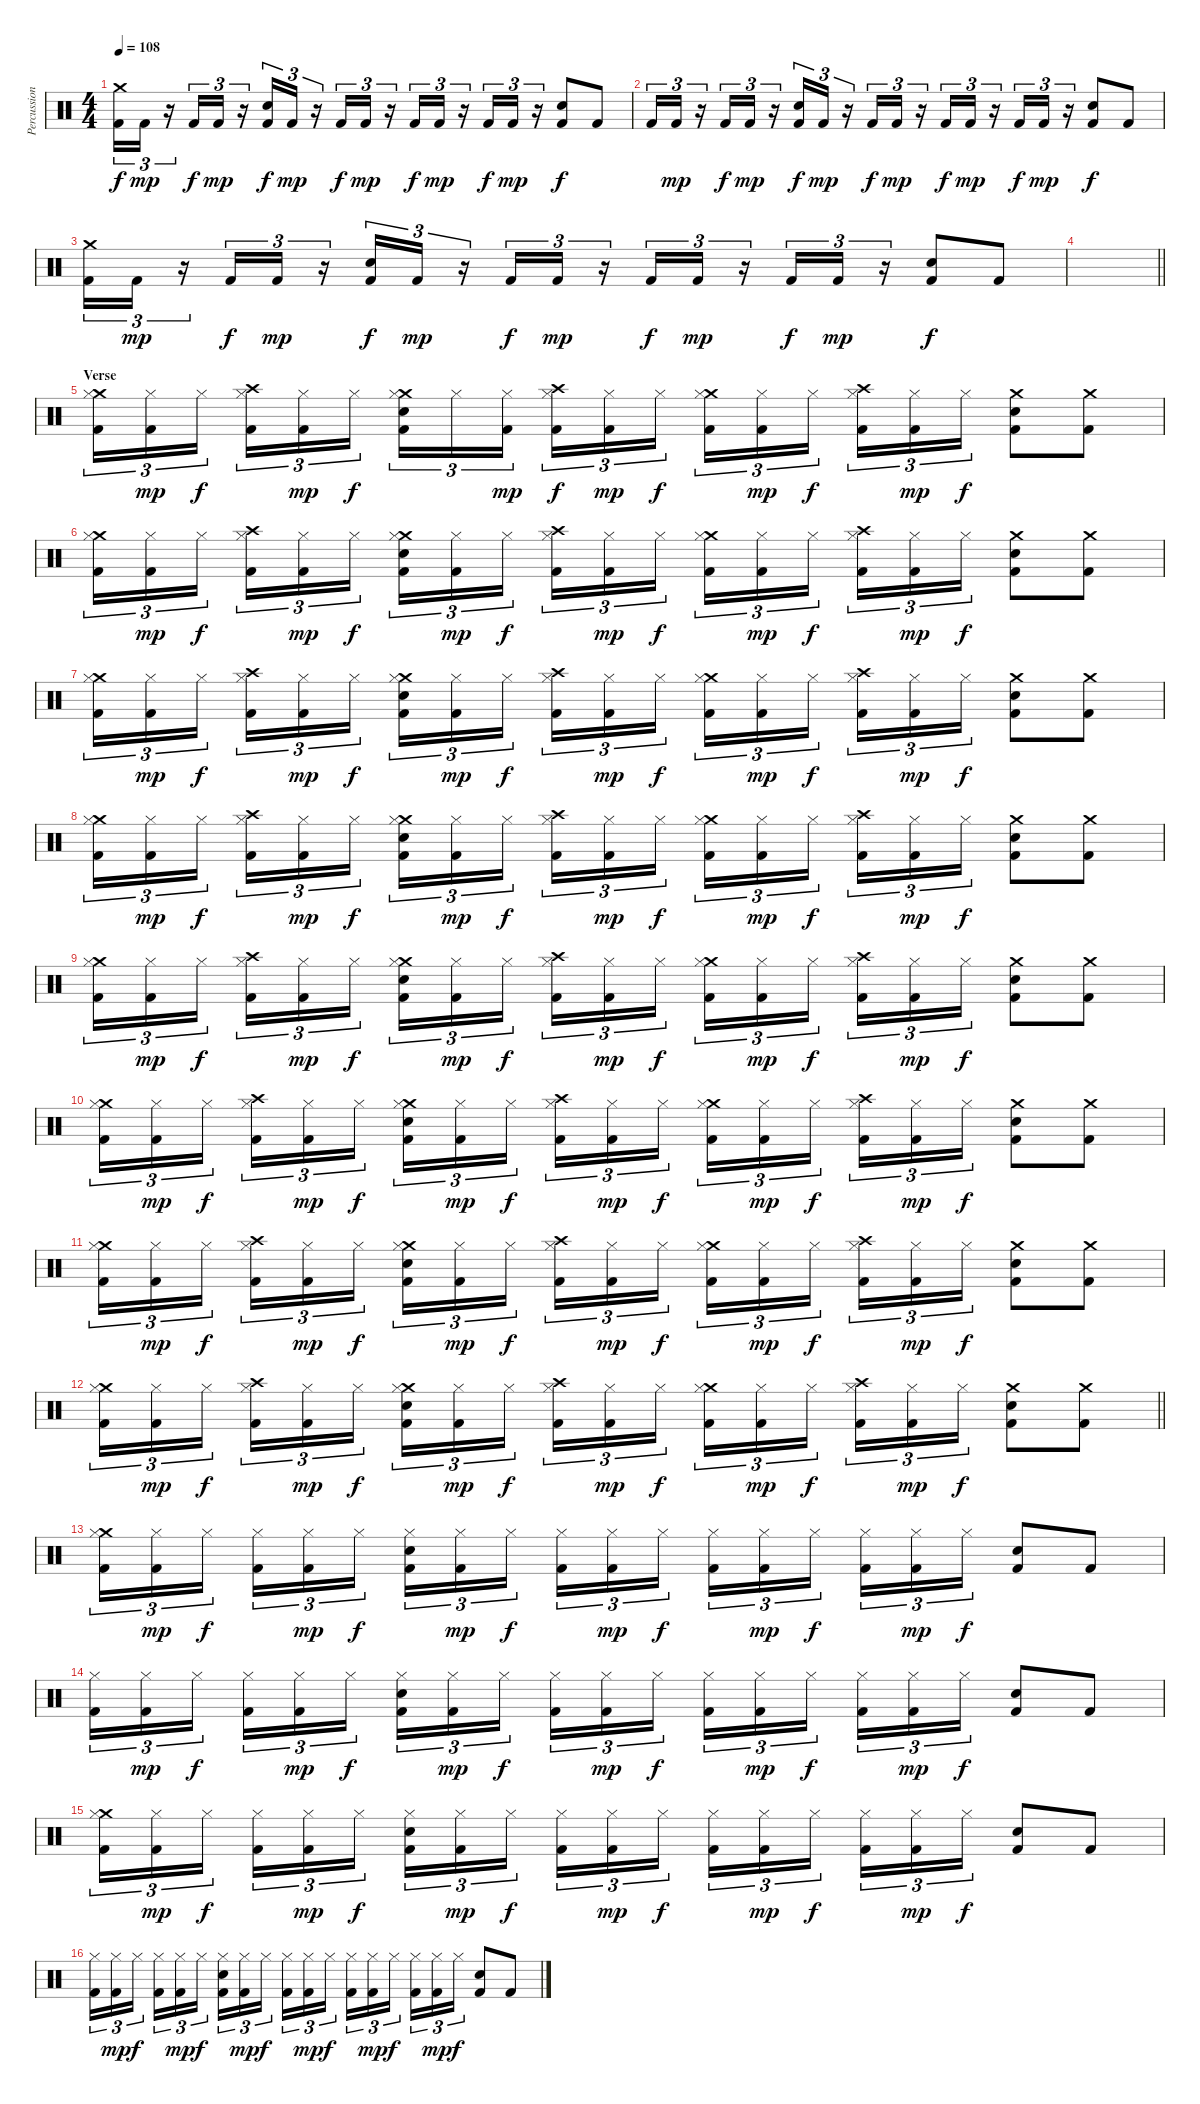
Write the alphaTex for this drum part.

\track ("Percussion" "Percussion") {instrument percussion}
\staff {score}
\articulation defaults
\ts (4 4)
\tempo 108
\clef neutral
\ks c
("Crash medium (hit)" "Kick (hit) 2").16{tu (3 2) dy f} "Kick (hit) 2".16{tu (3 2) dy mp} r.16{tu (3 2)} "Kick (hit) 2".16{tu (3 2) dy f} "Kick (hit) 2".16{tu (3 2) dy mp} r.16{tu (3 2)} ("Electric Snare (hit)" "Kick (hit) 2").16{tu (3 2) dy f} "Kick (hit) 2".16{tu (3 2) dy mp} r.16{tu (3 2)} "Kick (hit) 2".16{tu (3 2) dy f} "Kick (hit) 2".16{tu (3 2) dy mp} r.16{tu (3 2)} "Kick (hit) 2".16{tu (3 2) dy f} "Kick (hit) 2".16{tu (3 2) dy mp} r.16{tu (3 2)} "Kick (hit) 2".16{tu (3 2) dy f} "Kick (hit) 2".16{tu (3 2) dy mp} r.16{tu (3 2)} ("Electric Snare (hit)" "Kick (hit) 2").8{dy f} "Kick (hit) 2".8 |
"Kick (hit) 2".16{tu (3 2)} "Kick (hit) 2".16{tu (3 2) dy mp} r.16{tu (3 2)} "Kick (hit) 2".16{tu (3 2) dy f} "Kick (hit) 2".16{tu (3 2) dy mp} r.16{tu (3 2)} ("Electric Snare (hit)" "Kick (hit) 2").16{tu (3 2) dy f} "Kick (hit) 2".16{tu (3 2) dy mp} r.16{tu (3 2)} "Kick (hit) 2".16{tu (3 2) dy f} "Kick (hit) 2".16{tu (3 2) dy mp} r.16{tu (3 2)} "Kick (hit) 2".16{tu (3 2) dy f} "Kick (hit) 2".16{tu (3 2) dy mp} r.16{tu (3 2)} "Kick (hit) 2".16{tu (3 2) dy f} "Kick (hit) 2".16{tu (3 2) dy mp} r.16{tu (3 2)} ("Electric Snare (hit)" "Kick (hit) 2").8{dy f} "Kick (hit) 2".8 |
("Crash medium (hit)" "Kick (hit) 2").16{tu (3 2)} "Kick (hit) 2".16{tu (3 2) dy mp} r.16{tu (3 2)} "Kick (hit) 2".16{tu (3 2) dy f} "Kick (hit) 2".16{tu (3 2) dy mp} r.16{tu (3 2)} ("Electric Snare (hit)" "Kick (hit) 2").16{tu (3 2) dy f} "Kick (hit) 2".16{tu (3 2) dy mp} r.16{tu (3 2)} "Kick (hit) 2".16{tu (3 2) dy f} "Kick (hit) 2".16{tu (3 2) dy mp} r.16{tu (3 2)} "Kick (hit) 2".16{tu (3 2) dy f} "Kick (hit) 2".16{tu (3 2) dy mp} r.16{tu (3 2)} "Kick (hit) 2".16{tu (3 2) dy f} "Kick (hit) 2".16{tu (3 2) dy mp} r.16{tu (3 2)} ("Electric Snare (hit)" "Kick (hit) 2").8{dy f} "Kick (hit) 2".8 |
\barLineRight lightlight
|
\section ("" "Verse")
("Crash medium (hit)" "Hi-Hat (closed)" "Kick (hit) 2").16{tu (3 2)} ("Hi-Hat (closed)" "Kick (hit) 2").16{tu (3 2) dy mp} "Hi-Hat (closed)".16{tu (3 2) dy f beam splitsecondary} ("Crash high (hit)" "Hi-Hat (closed)" "Kick (hit) 2").16{tu (3 2)} ("Hi-Hat (closed)" "Kick (hit) 2").16{tu (3 2) dy mp} "Hi-Hat (closed)".16{tu (3 2) dy f} ("Crash medium (hit)" "Hi-Hat (closed)" "Electric Snare (hit)" "Kick (hit) 2").16{tu (3 2)} "Hi-Hat (closed)".16{tu (3 2)} ("Hi-Hat (closed)" "Kick (hit) 2").16{tu (3 2) dy mp beam splitsecondary} ("Crash high (hit)" "Hi-Hat (closed)" "Kick (hit) 2").16{tu (3 2) dy f} ("Hi-Hat (closed)" "Kick (hit) 2").16{tu (3 2) dy mp} "Hi-Hat (closed)".16{tu (3 2) dy f} ("Crash medium (hit)" "Hi-Hat (closed)" "Kick (hit) 2").16{tu (3 2)} ("Hi-Hat (closed)" "Kick (hit) 2").16{tu (3 2) dy mp} "Hi-Hat (closed)".16{tu (3 2) dy f beam splitsecondary} ("Crash high (hit)" "Hi-Hat (closed)" "Kick (hit) 2").16{tu (3 2)} ("Hi-Hat (closed)" "Kick (hit) 2").16{tu (3 2) dy mp} "Hi-Hat (closed)".16{tu (3 2) dy f} ("Crash medium (hit)" "Electric Snare (hit)" "Kick (hit) 2").8 ("Crash medium (hit)" "Kick (hit) 2").8 |
("Crash medium (hit)" "Hi-Hat (closed)" "Kick (hit) 2").16{tu (3 2)} ("Hi-Hat (closed)" "Kick (hit) 2").16{tu (3 2) dy mp} "Hi-Hat (closed)".16{tu (3 2) dy f beam splitsecondary} ("Crash high (hit)" "Hi-Hat (closed)" "Kick (hit) 2").16{tu (3 2)} ("Hi-Hat (closed)" "Kick (hit) 2").16{tu (3 2) dy mp} "Hi-Hat (closed)".16{tu (3 2) dy f} ("Crash medium (hit)" "Hi-Hat (closed)" "Electric Snare (hit)" "Kick (hit) 2").16{tu (3 2)} ("Hi-Hat (closed)" "Kick (hit) 2").16{tu (3 2) dy mp} "Hi-Hat (closed)".16{tu (3 2) dy f beam splitsecondary} ("Crash high (hit)" "Hi-Hat (closed)" "Kick (hit) 2").16{tu (3 2)} ("Hi-Hat (closed)" "Kick (hit) 2").16{tu (3 2) dy mp} "Hi-Hat (closed)".16{tu (3 2) dy f} ("Crash medium (hit)" "Hi-Hat (closed)" "Kick (hit) 2").16{tu (3 2)} ("Hi-Hat (closed)" "Kick (hit) 2").16{tu (3 2) dy mp} "Hi-Hat (closed)".16{tu (3 2) dy f beam splitsecondary} ("Crash high (hit)" "Hi-Hat (closed)" "Kick (hit) 2").16{tu (3 2)} ("Hi-Hat (closed)" "Kick (hit) 2").16{tu (3 2) dy mp} "Hi-Hat (closed)".16{tu (3 2) dy f} ("Crash medium (hit)" "Electric Snare (hit)" "Kick (hit) 2").8 ("Crash medium (hit)" "Kick (hit) 2").8 |
("Crash medium (hit)" "Hi-Hat (closed)" "Kick (hit) 2").16{tu (3 2)} ("Hi-Hat (closed)" "Kick (hit) 2").16{tu (3 2) dy mp} "Hi-Hat (closed)".16{tu (3 2) dy f beam splitsecondary} ("Crash high (hit)" "Hi-Hat (closed)" "Kick (hit) 2").16{tu (3 2)} ("Hi-Hat (closed)" "Kick (hit) 2").16{tu (3 2) dy mp} "Hi-Hat (closed)".16{tu (3 2) dy f} ("Crash medium (hit)" "Hi-Hat (closed)" "Electric Snare (hit)" "Kick (hit) 2").16{tu (3 2)} ("Hi-Hat (closed)" "Kick (hit) 2").16{tu (3 2) dy mp} "Hi-Hat (closed)".16{tu (3 2) dy f beam splitsecondary} ("Crash high (hit)" "Hi-Hat (closed)" "Kick (hit) 2").16{tu (3 2)} ("Hi-Hat (closed)" "Kick (hit) 2").16{tu (3 2) dy mp} "Hi-Hat (closed)".16{tu (3 2) dy f} ("Crash medium (hit)" "Hi-Hat (closed)" "Kick (hit) 2").16{tu (3 2)} ("Hi-Hat (closed)" "Kick (hit) 2").16{tu (3 2) dy mp} "Hi-Hat (closed)".16{tu (3 2) dy f beam splitsecondary} ("Crash high (hit)" "Hi-Hat (closed)" "Kick (hit) 2").16{tu (3 2)} ("Hi-Hat (closed)" "Kick (hit) 2").16{tu (3 2) dy mp} "Hi-Hat (closed)".16{tu (3 2) dy f} ("Crash medium (hit)" "Electric Snare (hit)" "Kick (hit) 2").8 ("Crash medium (hit)" "Kick (hit) 2").8 |
("Crash medium (hit)" "Hi-Hat (closed)" "Kick (hit) 2").16{tu (3 2)} ("Hi-Hat (closed)" "Kick (hit) 2").16{tu (3 2) dy mp} "Hi-Hat (closed)".16{tu (3 2) dy f beam splitsecondary} ("Crash high (hit)" "Hi-Hat (closed)" "Kick (hit) 2").16{tu (3 2)} ("Hi-Hat (closed)" "Kick (hit) 2").16{tu (3 2) dy mp} "Hi-Hat (closed)".16{tu (3 2) dy f} ("Crash medium (hit)" "Hi-Hat (closed)" "Electric Snare (hit)" "Kick (hit) 2").16{tu (3 2)} ("Hi-Hat (closed)" "Kick (hit) 2").16{tu (3 2) dy mp} "Hi-Hat (closed)".16{tu (3 2) dy f beam splitsecondary} ("Crash high (hit)" "Hi-Hat (closed)" "Kick (hit) 2").16{tu (3 2)} ("Hi-Hat (closed)" "Kick (hit) 2").16{tu (3 2) dy mp} "Hi-Hat (closed)".16{tu (3 2) dy f} ("Crash medium (hit)" "Hi-Hat (closed)" "Kick (hit) 2").16{tu (3 2)} ("Hi-Hat (closed)" "Kick (hit) 2").16{tu (3 2) dy mp} "Hi-Hat (closed)".16{tu (3 2) dy f beam splitsecondary} ("Crash high (hit)" "Hi-Hat (closed)" "Kick (hit) 2").16{tu (3 2)} ("Hi-Hat (closed)" "Kick (hit) 2").16{tu (3 2) dy mp} "Hi-Hat (closed)".16{tu (3 2) dy f} ("Crash medium (hit)" "Electric Snare (hit)" "Kick (hit) 2").8 ("Crash medium (hit)" "Kick (hit) 2").8 |
("Crash medium (hit)" "Hi-Hat (closed)" "Kick (hit) 2").16{tu (3 2)} ("Hi-Hat (closed)" "Kick (hit) 2").16{tu (3 2) dy mp} "Hi-Hat (closed)".16{tu (3 2) dy f beam splitsecondary} ("Crash high (hit)" "Hi-Hat (closed)" "Kick (hit) 2").16{tu (3 2)} ("Hi-Hat (closed)" "Kick (hit) 2").16{tu (3 2) dy mp} "Hi-Hat (closed)".16{tu (3 2) dy f} ("Crash medium (hit)" "Hi-Hat (closed)" "Electric Snare (hit)" "Kick (hit) 2").16{tu (3 2)} ("Hi-Hat (closed)" "Kick (hit) 2").16{tu (3 2) dy mp} "Hi-Hat (closed)".16{tu (3 2) dy f beam splitsecondary} ("Crash high (hit)" "Hi-Hat (closed)" "Kick (hit) 2").16{tu (3 2)} ("Hi-Hat (closed)" "Kick (hit) 2").16{tu (3 2) dy mp} "Hi-Hat (closed)".16{tu (3 2) dy f} ("Crash medium (hit)" "Hi-Hat (closed)" "Kick (hit) 2").16{tu (3 2)} ("Hi-Hat (closed)" "Kick (hit) 2").16{tu (3 2) dy mp} "Hi-Hat (closed)".16{tu (3 2) dy f beam splitsecondary} ("Crash high (hit)" "Hi-Hat (closed)" "Kick (hit) 2").16{tu (3 2)} ("Hi-Hat (closed)" "Kick (hit) 2").16{tu (3 2) dy mp} "Hi-Hat (closed)".16{tu (3 2) dy f} ("Crash medium (hit)" "Electric Snare (hit)" "Kick (hit) 2").8 ("Crash medium (hit)" "Kick (hit) 2").8 |
("Crash medium (hit)" "Hi-Hat (closed)" "Kick (hit) 2").16{tu (3 2)} ("Hi-Hat (closed)" "Kick (hit) 2").16{tu (3 2) dy mp} "Hi-Hat (closed)".16{tu (3 2) dy f beam splitsecondary} ("Crash high (hit)" "Hi-Hat (closed)" "Kick (hit) 2").16{tu (3 2)} ("Hi-Hat (closed)" "Kick (hit) 2").16{tu (3 2) dy mp} "Hi-Hat (closed)".16{tu (3 2) dy f} ("Crash medium (hit)" "Hi-Hat (closed)" "Electric Snare (hit)" "Kick (hit) 2").16{tu (3 2)} ("Hi-Hat (closed)" "Kick (hit) 2").16{tu (3 2) dy mp} "Hi-Hat (closed)".16{tu (3 2) dy f beam splitsecondary} ("Crash high (hit)" "Hi-Hat (closed)" "Kick (hit) 2").16{tu (3 2)} ("Hi-Hat (closed)" "Kick (hit) 2").16{tu (3 2) dy mp} "Hi-Hat (closed)".16{tu (3 2) dy f} ("Crash medium (hit)" "Hi-Hat (closed)" "Kick (hit) 2").16{tu (3 2)} ("Hi-Hat (closed)" "Kick (hit) 2").16{tu (3 2) dy mp} "Hi-Hat (closed)".16{tu (3 2) dy f beam splitsecondary} ("Crash high (hit)" "Hi-Hat (closed)" "Kick (hit) 2").16{tu (3 2)} ("Hi-Hat (closed)" "Kick (hit) 2").16{tu (3 2) dy mp} "Hi-Hat (closed)".16{tu (3 2) dy f} ("Crash medium (hit)" "Electric Snare (hit)" "Kick (hit) 2").8 ("Crash medium (hit)" "Kick (hit) 2").8 |
("Crash medium (hit)" "Hi-Hat (closed)" "Kick (hit) 2").16{tu (3 2)} ("Hi-Hat (closed)" "Kick (hit) 2").16{tu (3 2) dy mp} "Hi-Hat (closed)".16{tu (3 2) dy f beam splitsecondary} ("Crash high (hit)" "Hi-Hat (closed)" "Kick (hit) 2").16{tu (3 2)} ("Hi-Hat (closed)" "Kick (hit) 2").16{tu (3 2) dy mp} "Hi-Hat (closed)".16{tu (3 2) dy f} ("Crash medium (hit)" "Hi-Hat (closed)" "Electric Snare (hit)" "Kick (hit) 2").16{tu (3 2)} ("Hi-Hat (closed)" "Kick (hit) 2").16{tu (3 2) dy mp} "Hi-Hat (closed)".16{tu (3 2) dy f beam splitsecondary} ("Crash high (hit)" "Hi-Hat (closed)" "Kick (hit) 2").16{tu (3 2)} ("Hi-Hat (closed)" "Kick (hit) 2").16{tu (3 2) dy mp} "Hi-Hat (closed)".16{tu (3 2) dy f} ("Crash medium (hit)" "Hi-Hat (closed)" "Kick (hit) 2").16{tu (3 2)} ("Hi-Hat (closed)" "Kick (hit) 2").16{tu (3 2) dy mp} "Hi-Hat (closed)".16{tu (3 2) dy f beam splitsecondary} ("Crash high (hit)" "Hi-Hat (closed)" "Kick (hit) 2").16{tu (3 2)} ("Hi-Hat (closed)" "Kick (hit) 2").16{tu (3 2) dy mp} "Hi-Hat (closed)".16{tu (3 2) dy f} ("Crash medium (hit)" "Electric Snare (hit)" "Kick (hit) 2").8 ("Crash medium (hit)" "Kick (hit) 2").8 |
\barLineRight lightlight
("Crash medium (hit)" "Hi-Hat (closed)" "Kick (hit) 2").16{tu (3 2)} ("Hi-Hat (closed)" "Kick (hit) 2").16{tu (3 2) dy mp} "Hi-Hat (closed)".16{tu (3 2) dy f beam splitsecondary} ("Crash high (hit)" "Hi-Hat (closed)" "Kick (hit) 2").16{tu (3 2)} ("Hi-Hat (closed)" "Kick (hit) 2").16{tu (3 2) dy mp} "Hi-Hat (closed)".16{tu (3 2) dy f} ("Crash medium (hit)" "Hi-Hat (closed)" "Electric Snare (hit)" "Kick (hit) 2").16{tu (3 2)} ("Hi-Hat (closed)" "Kick (hit) 2").16{tu (3 2) dy mp} "Hi-Hat (closed)".16{tu (3 2) dy f beam splitsecondary} ("Crash high (hit)" "Hi-Hat (closed)" "Kick (hit) 2").16{tu (3 2)} ("Hi-Hat (closed)" "Kick (hit) 2").16{tu (3 2) dy mp} "Hi-Hat (closed)".16{tu (3 2) dy f} ("Crash medium (hit)" "Hi-Hat (closed)" "Kick (hit) 2").16{tu (3 2)} ("Hi-Hat (closed)" "Kick (hit) 2").16{tu (3 2) dy mp} "Hi-Hat (closed)".16{tu (3 2) dy f beam splitsecondary} ("Crash high (hit)" "Hi-Hat (closed)" "Kick (hit) 2").16{tu (3 2)} ("Hi-Hat (closed)" "Kick (hit) 2").16{tu (3 2) dy mp} "Hi-Hat (closed)".16{tu (3 2) dy f} ("Crash medium (hit)" "Electric Snare (hit)" "Kick (hit) 2").8 ("Crash medium (hit)" "Kick (hit) 2").8 |
\section ("" "")
("Crash medium (hit)" "Hi-Hat (closed)" "Kick (hit) 2").16{tu (3 2)} ("Hi-Hat (closed)" "Kick (hit) 2").16{tu (3 2) dy mp} "Hi-Hat (closed)".16{tu (3 2) dy f beam splitsecondary} ("Hi-Hat (closed)" "Kick (hit) 2").16{tu (3 2)} ("Hi-Hat (closed)" "Kick (hit) 2").16{tu (3 2) dy mp} "Hi-Hat (closed)".16{tu (3 2) dy f} ("Hi-Hat (closed)" "Electric Snare (hit)" "Kick (hit) 2").16{tu (3 2)} ("Hi-Hat (closed)" "Kick (hit) 2").16{tu (3 2) dy mp} "Hi-Hat (closed)".16{tu (3 2) dy f beam splitsecondary} ("Hi-Hat (closed)" "Kick (hit) 2").16{tu (3 2)} ("Hi-Hat (closed)" "Kick (hit) 2").16{tu (3 2) dy mp} "Hi-Hat (closed)".16{tu (3 2) dy f} ("Hi-Hat (closed)" "Kick (hit) 2").16{tu (3 2)} ("Hi-Hat (closed)" "Kick (hit) 2").16{tu (3 2) dy mp} "Hi-Hat (closed)".16{tu (3 2) dy f beam splitsecondary} ("Hi-Hat (closed)" "Kick (hit) 2").16{tu (3 2)} ("Hi-Hat (closed)" "Kick (hit) 2").16{tu (3 2) dy mp} "Hi-Hat (closed)".16{tu (3 2) dy f} ("Electric Snare (hit)" "Kick (hit) 2").8 "Kick (hit) 2".8 |
("Hi-Hat (closed)" "Kick (hit) 2").16{tu (3 2)} ("Hi-Hat (closed)" "Kick (hit) 2").16{tu (3 2) dy mp} "Hi-Hat (closed)".16{tu (3 2) dy f beam splitsecondary} ("Hi-Hat (closed)" "Kick (hit) 2").16{tu (3 2)} ("Hi-Hat (closed)" "Kick (hit) 2").16{tu (3 2) dy mp} "Hi-Hat (closed)".16{tu (3 2) dy f} ("Hi-Hat (closed)" "Electric Snare (hit)" "Kick (hit) 2").16{tu (3 2)} ("Hi-Hat (closed)" "Kick (hit) 2").16{tu (3 2) dy mp} "Hi-Hat (closed)".16{tu (3 2) dy f beam splitsecondary} ("Hi-Hat (closed)" "Kick (hit) 2").16{tu (3 2)} ("Hi-Hat (closed)" "Kick (hit) 2").16{tu (3 2) dy mp} "Hi-Hat (closed)".16{tu (3 2) dy f} ("Hi-Hat (closed)" "Kick (hit) 2").16{tu (3 2)} ("Hi-Hat (closed)" "Kick (hit) 2").16{tu (3 2) dy mp} "Hi-Hat (closed)".16{tu (3 2) dy f beam splitsecondary} ("Hi-Hat (closed)" "Kick (hit) 2").16{tu (3 2)} ("Hi-Hat (closed)" "Kick (hit) 2").16{tu (3 2) dy mp} "Hi-Hat (closed)".16{tu (3 2) dy f} ("Electric Snare (hit)" "Kick (hit) 2").8 "Kick (hit) 2".8 |
("Crash medium (hit)" "Hi-Hat (closed)" "Kick (hit) 2").16{tu (3 2)} ("Hi-Hat (closed)" "Kick (hit) 2").16{tu (3 2) dy mp} "Hi-Hat (closed)".16{tu (3 2) dy f beam splitsecondary} ("Hi-Hat (closed)" "Kick (hit) 2").16{tu (3 2)} ("Hi-Hat (closed)" "Kick (hit) 2").16{tu (3 2) dy mp} "Hi-Hat (closed)".16{tu (3 2) dy f} ("Hi-Hat (closed)" "Electric Snare (hit)" "Kick (hit) 2").16{tu (3 2)} ("Hi-Hat (closed)" "Kick (hit) 2").16{tu (3 2) dy mp} "Hi-Hat (closed)".16{tu (3 2) dy f beam splitsecondary} ("Hi-Hat (closed)" "Kick (hit) 2").16{tu (3 2)} ("Hi-Hat (closed)" "Kick (hit) 2").16{tu (3 2) dy mp} "Hi-Hat (closed)".16{tu (3 2) dy f} ("Hi-Hat (closed)" "Kick (hit) 2").16{tu (3 2)} ("Hi-Hat (closed)" "Kick (hit) 2").16{tu (3 2) dy mp} "Hi-Hat (closed)".16{tu (3 2) dy f beam splitsecondary} ("Hi-Hat (closed)" "Kick (hit) 2").16{tu (3 2)} ("Hi-Hat (closed)" "Kick (hit) 2").16{tu (3 2) dy mp} "Hi-Hat (closed)".16{tu (3 2) dy f} ("Electric Snare (hit)" "Kick (hit) 2").8 "Kick (hit) 2".8 |
("Hi-Hat (closed)" "Kick (hit) 2").16{tu (3 2)} ("Hi-Hat (closed)" "Kick (hit) 2").16{tu (3 2) dy mp} "Hi-Hat (closed)".16{tu (3 2) dy f beam splitsecondary} ("Hi-Hat (closed)" "Kick (hit) 2").16{tu (3 2)} ("Hi-Hat (closed)" "Kick (hit) 2").16{tu (3 2) dy mp} "Hi-Hat (closed)".16{tu (3 2) dy f} ("Hi-Hat (closed)" "Electric Snare (hit)" "Kick (hit) 2").16{tu (3 2)} ("Hi-Hat (closed)" "Kick (hit) 2").16{tu (3 2) dy mp} "Hi-Hat (closed)".16{tu (3 2) dy f beam splitsecondary} ("Hi-Hat (closed)" "Kick (hit) 2").16{tu (3 2)} ("Hi-Hat (closed)" "Kick (hit) 2").16{tu (3 2) dy mp} "Hi-Hat (closed)".16{tu (3 2) dy f} ("Hi-Hat (closed)" "Kick (hit) 2").16{tu (3 2)} ("Hi-Hat (closed)" "Kick (hit) 2").16{tu (3 2) dy mp} "Hi-Hat (closed)".16{tu (3 2) dy f beam splitsecondary} ("Hi-Hat (closed)" "Kick (hit) 2").16{tu (3 2)} ("Hi-Hat (closed)" "Kick (hit) 2").16{tu (3 2) dy mp} "Hi-Hat (closed)".16{tu (3 2) dy f} ("Electric Snare (hit)" "Kick (hit) 2").8 "Kick (hit) 2".8
